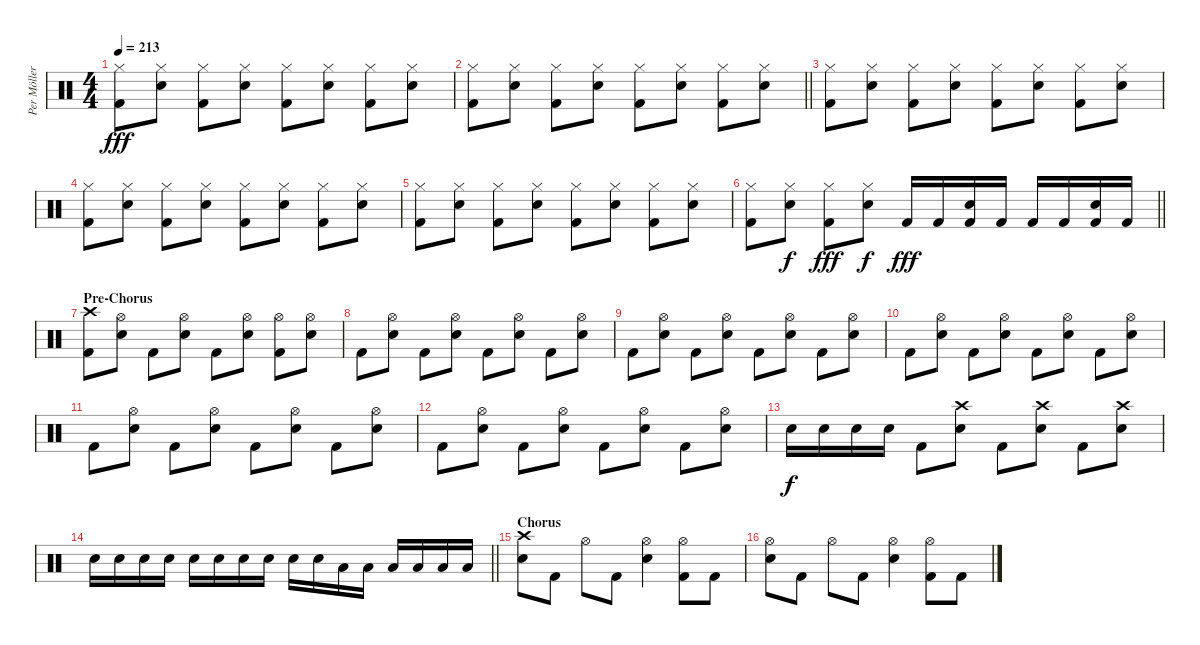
\track ("Per Möller Jensen" "Per Möller") {instrument percussion}
\staff {score}
\articulation defaults
\ts (4 4)
\tempo 213
\clef neutral
\ks c
("Hi-Hat (closed)" "Kick (hit) 2").8{dy fff} ("Hi-Hat (closed)" "Electric Snare (hit)").8 ("Hi-Hat (closed)" "Kick (hit) 2").8 ("Hi-Hat (closed)" "Electric Snare (hit)").8 ("Hi-Hat (closed)" "Kick (hit) 2").8 ("Hi-Hat (closed)" "Electric Snare (hit)").8 ("Hi-Hat (closed)" "Kick (hit) 2").8 ("Hi-Hat (closed)" "Electric Snare (hit)").8 |
\barLineRight lightlight
("Hi-Hat (closed)" "Kick (hit) 2").8 ("Hi-Hat (closed)" "Electric Snare (hit)").8 ("Hi-Hat (closed)" "Kick (hit) 2").8 ("Hi-Hat (closed)" "Electric Snare (hit)").8 ("Hi-Hat (closed)" "Kick (hit) 2").8 ("Hi-Hat (closed)" "Electric Snare (hit)").8 ("Hi-Hat (closed)" "Kick (hit) 2").8 ("Hi-Hat (closed)" "Electric Snare (hit)").8 |
\section ("" "")
("Hi-Hat (closed)" "Kick (hit) 2").8 ("Hi-Hat (closed)" "Electric Snare (hit)").8 ("Hi-Hat (closed)" "Kick (hit) 2").8 ("Hi-Hat (closed)" "Electric Snare (hit)").8 ("Hi-Hat (closed)" "Kick (hit) 2").8 ("Hi-Hat (closed)" "Electric Snare (hit)").8 ("Hi-Hat (closed)" "Kick (hit) 2").8 ("Hi-Hat (closed)" "Electric Snare (hit)").8 |
("Hi-Hat (closed)" "Kick (hit) 2").8 ("Hi-Hat (closed)" "Electric Snare (hit)").8 ("Hi-Hat (closed)" "Kick (hit) 2").8 ("Hi-Hat (closed)" "Electric Snare (hit)").8 ("Hi-Hat (closed)" "Kick (hit) 2").8 ("Hi-Hat (closed)" "Electric Snare (hit)").8 ("Hi-Hat (closed)" "Kick (hit) 2").8 ("Hi-Hat (closed)" "Electric Snare (hit)").8 |
("Hi-Hat (closed)" "Kick (hit) 2").8 ("Hi-Hat (closed)" "Electric Snare (hit)").8 ("Hi-Hat (closed)" "Kick (hit) 2").8 ("Hi-Hat (closed)" "Electric Snare (hit)").8 ("Hi-Hat (closed)" "Kick (hit) 2").8 ("Hi-Hat (closed)" "Electric Snare (hit)").8 ("Hi-Hat (closed)" "Kick (hit) 2").8 ("Hi-Hat (closed)" "Electric Snare (hit)").8 |
\barLineRight lightlight
("Hi-Hat (closed)" "Kick (hit) 2").8 ("Hi-Hat (closed)" "Electric Snare (hit)").8{dy f} ("Hi-Hat (closed)" "Kick (hit) 2").8{dy fff} ("Hi-Hat (closed)" "Electric Snare (hit)").8{dy f} "Kick (hit) 2".16{dy fff} "Kick (hit) 2".16 ("Electric Snare (hit)" "Kick (hit) 2").16 "Kick (hit) 2".16 "Kick (hit) 2".16 "Kick (hit) 2".16 ("Electric Snare (hit)" "Kick (hit) 2").16 "Kick (hit) 2".16 |
\section ("" "Pre-Chorus")
("Crash high (hit)" "Kick (hit) 2").8 ("Hi-Hat (open)" "Electric Snare (hit)").8 "Kick (hit) 2".8 ("Hi-Hat (open)" "Electric Snare (hit)").8 "Kick (hit) 2".8 ("Hi-Hat (open)" "Electric Snare (hit)").8 ("Hi-Hat (open)" "Kick (hit) 2").8 ("Hi-Hat (open)" "Electric Snare (hit)").8 |
"Kick (hit) 2".8 ("Hi-Hat (open)" "Electric Snare (hit)").8 "Kick (hit) 2".8 ("Hi-Hat (open)" "Electric Snare (hit)").8 "Kick (hit) 2".8 ("Hi-Hat (open)" "Electric Snare (hit)").8 "Kick (hit) 2".8 ("Hi-Hat (open)" "Electric Snare (hit)").8 |
"Kick (hit) 2".8 ("Hi-Hat (open)" "Electric Snare (hit)").8 "Kick (hit) 2".8 ("Hi-Hat (open)" "Electric Snare (hit)").8 "Kick (hit) 2".8 ("Hi-Hat (open)" "Electric Snare (hit)").8 "Kick (hit) 2".8 ("Hi-Hat (open)" "Electric Snare (hit)").8 |
"Kick (hit) 2".8 ("Hi-Hat (open)" "Electric Snare (hit)").8 "Kick (hit) 2".8 ("Hi-Hat (open)" "Electric Snare (hit)").8 "Kick (hit) 2".8 ("Hi-Hat (open)" "Electric Snare (hit)").8 "Kick (hit) 2".8 ("Hi-Hat (open)" "Electric Snare (hit)").8 |
"Kick (hit) 2".8 ("Hi-Hat (open)" "Electric Snare (hit)").8 "Kick (hit) 2".8 ("Hi-Hat (open)" "Electric Snare (hit)").8 "Kick (hit) 2".8 ("Hi-Hat (open)" "Electric Snare (hit)").8 "Kick (hit) 2".8 ("Hi-Hat (open)" "Electric Snare (hit)").8 |
"Kick (hit) 2".8 ("Hi-Hat (open)" "Electric Snare (hit)").8 "Kick (hit) 2".8 ("Hi-Hat (open)" "Electric Snare (hit)").8 "Kick (hit) 2".8 ("Hi-Hat (open)" "Electric Snare (hit)").8 "Kick (hit) 2".8 ("Hi-Hat (open)" "Electric Snare (hit)").8 |
"Electric Snare (hit)".16{dy f} "Electric Snare (hit)".16 "Electric Snare (hit)".16 "Electric Snare (hit)".16 "Kick (hit) 2".8 ("Crash high (hit)" "Electric Snare (hit)").8 "Kick (hit) 2".8 ("Crash high (hit)" "Electric Snare (hit)").8 "Kick (hit) 2".8 ("Crash high (hit)" "Electric Snare (hit)").8 |
\barLineRight lightlight "Electric Snare (hit)".16 "Electric Snare (hit)".16 "Electric Snare (hit)".16 "Electric Snare (hit)".16 "Electric Snare (hit)".16 "Electric Snare (hit)".16 "Electric Snare (hit)".16 "Electric Snare (hit)".16 "Electric Snare (hit)".16 "Electric Snare (hit)".16 "Low Tom (hit)".16 "Low Tom (hit)".16 "Low Tom (hit)".16 "Low Tom (hit)".16 "Low Tom (hit)".16 "Low Tom (hit)".16
|
\section ("" "Chorus")
("Crash high (hit)" "Electric Snare (hit)").8 "Kick (hit) 2".8 "Hi-Hat (open)".8 "Kick (hit) 2".8 ("Hi-Hat (open)" "Electric Snare (hit)").4 ("Hi-Hat (open)" "Kick (hit) 2").8 "Kick (hit) 2".8 |
("Hi-Hat (open)" "Electric Snare (hit)").8 "Kick (hit) 2".8 "Hi-Hat (open)".8 "Kick (hit) 2".8 ("Hi-Hat (open)" "Electric Snare (hit)").4 ("Hi-Hat (open)" "Kick (hit) 2").8 "Kick (hit) 2".8
